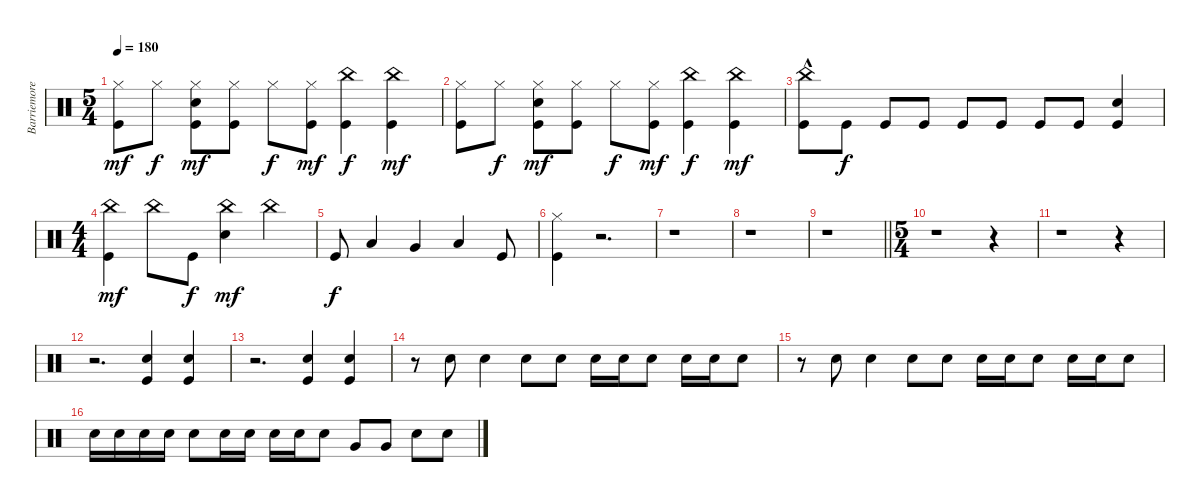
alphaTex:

\track ("Barriemore Barlow (drums)" "Barriemore") {instrument percussion}
\staff {score}
\articulation defaults
\ts (5 4)
\tempo 180
\clef neutral
\ks c
("Hi-Hat (closed)" "Kick (hit)").8{dy mf} "Hi-Hat (closed)".8{dy f} ("Hi-Hat (closed)" "Electric Snare (hit)" "Kick (hit)").8{dy mf} ("Hi-Hat (closed)" "Kick (hit)").8 "Hi-Hat (closed)".8{dy f} ("Hi-Hat (closed)" "Kick (hit)").8{dy mf} ("China (hit)" "Kick (hit)").4{dy f} ("China (hit)" "Kick (hit)").4{dy mf} |
("Hi-Hat (closed)" "Kick (hit)").8 "Hi-Hat (closed)".8{dy f} ("Hi-Hat (closed)" "Electric Snare (hit)" "Kick (hit)").8{dy mf} ("Hi-Hat (closed)" "Kick (hit)").8 "Hi-Hat (closed)".8{dy f} ("Hi-Hat (closed)" "Kick (hit)").8{dy mf} ("China (hit)" "Kick (hit)").4{dy f} ("China (hit)" "Kick (hit)").4{dy mf} |
("China (hit)"{hac} "Kick (hit)").8 "Kick (hit)".8{dy f} "Kick (hit)".8 "Kick (hit)".8 "Kick (hit)".8 "Kick (hit)".8 "Kick (hit)".8 "Kick (hit)".8 ("Electric Snare (hit)" "Kick (hit)").4 |
\ts (4 4)
("China (hit)" "Kick (hit)").4{dy mf} "China (hit)".8 "Kick (hit)".8{dy f} ("China (hit)" "Electric Snare (hit)").4{dy mf} "China (hit)".4 |
"Kick (hit)".8{dy f} "Low Tom (hit)".4 "Very Low Tom (hit)".4 "Low Floor Tom (hit)".4 "Kick (hit)".8 |
("Hi-Hat (closed)" "Kick (hit)").4 r.2{d} |
r.1 |
r.1 |
\barLineRight lightlight
r.1 |
\ts (5 4)
r.1 r.4 |
r.1 r.4 |
r.2{d} ("Electric Snare (hit)" "Kick (hit)").4 ("Electric Snare (hit)" "Kick (hit)").4 |
r.2{d} ("Electric Snare (hit)" "Kick (hit)").4 ("Electric Snare (hit)" "Kick (hit)").4 |
r.8 "Electric Snare (hit)".8 "Electric Snare (hit)".4 "Electric Snare (hit)".8 "Electric Snare (hit)".8 "Electric Snare (hit)".16 "Electric Snare (hit)".16 "Electric Snare (hit)".8 "Electric Snare (hit)".16 "Electric Snare (hit)".16 "Electric Snare (hit)".8 |
r.8 "Electric Snare (hit)".8 "Electric Snare (hit)".4 "Electric Snare (hit)".8 "Electric Snare (hit)".8 "Electric Snare (hit)".16 "Electric Snare (hit)".16 "Electric Snare (hit)".8 "Electric Snare (hit)".16 "Electric Snare (hit)".16 "Electric Snare (hit)".8 |
"Electric Snare (hit)".16 "Electric Snare (hit)".16 "Electric Snare (hit)".16 "Electric Snare (hit)".16 "Electric Snare (hit)".8 "Electric Snare (hit)".16 "Electric Snare (hit)".16 "Electric Snare (hit)".16 "Electric Snare (hit)".16 "Electric Snare (hit)".8 "Very Low Tom (hit)".8 "Very Low Tom (hit)".8 "Electric Snare (hit)".8 "Electric Snare (hit)".8
